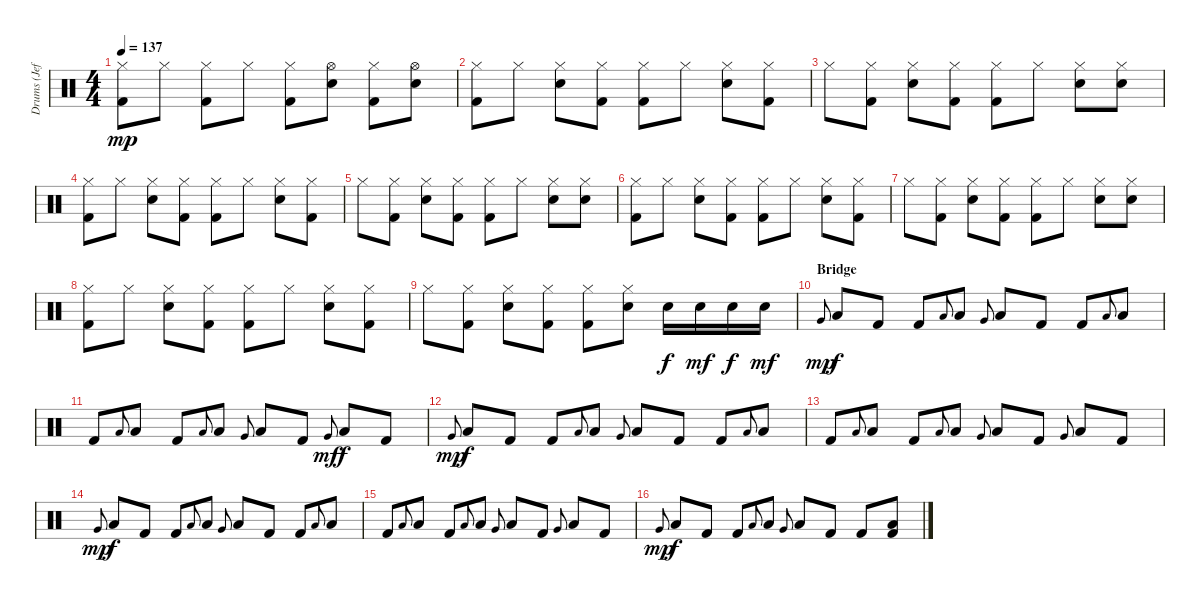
\track ("Drums (Jeff)" "Drums (Jef") {instrument percussion}
\staff {score}
\articulation defaults
\ts (4 4)
\tempo 137
\clef neutral
\ks c
("Hi-Hat (closed)" "Kick (hit) 2").8{dy mp} "Hi-Hat (closed)".8 ("Hi-Hat (closed)" "Kick (hit) 2").8 "Hi-Hat (closed)".8 ("Hi-Hat (closed)" "Kick (hit) 2").8 ("Hi-Hat (open)" "Electric Snare (hit)").8 ("Hi-Hat (closed)" "Kick (hit) 2").8 ("Hi-Hat (open)" "Electric Snare (hit)").8 |
("Hi-Hat (closed)" "Kick (hit) 2").8 "Hi-Hat (closed)".8 ("Hi-Hat (closed)" "Electric Snare (hit)").8 ("Hi-Hat (closed)" "Kick (hit) 2").8 ("Hi-Hat (closed)" "Kick (hit) 2").8 "Hi-Hat (closed)".8 ("Hi-Hat (closed)" "Electric Snare (hit)").8 ("Hi-Hat (closed)" "Kick (hit) 2").8 |
"Hi-Hat (closed)".8 ("Hi-Hat (closed)" "Kick (hit) 2").8 ("Hi-Hat (closed)" "Electric Snare (hit)").8 ("Hi-Hat (closed)" "Kick (hit) 2").8 ("Hi-Hat (closed)" "Kick (hit) 2").8 "Hi-Hat (closed)".8 ("Hi-Hat (closed)" "Electric Snare (hit)").8 ("Hi-Hat (closed)" "Electric Snare (hit)").8 |
("Hi-Hat (closed)" "Kick (hit) 2").8 "Hi-Hat (closed)".8 ("Hi-Hat (closed)" "Electric Snare (hit)").8 ("Hi-Hat (closed)" "Kick (hit) 2").8 ("Hi-Hat (closed)" "Kick (hit) 2").8 "Hi-Hat (closed)".8 ("Hi-Hat (closed)" "Electric Snare (hit)").8 ("Hi-Hat (closed)" "Kick (hit) 2").8 |
"Hi-Hat (closed)".8 ("Hi-Hat (closed)" "Kick (hit) 2").8 ("Hi-Hat (closed)" "Electric Snare (hit)").8 ("Hi-Hat (closed)" "Kick (hit) 2").8 ("Hi-Hat (closed)" "Kick (hit) 2").8 "Hi-Hat (closed)".8 ("Hi-Hat (closed)" "Electric Snare (hit)").8 ("Hi-Hat (closed)" "Electric Snare (hit)").8 |
("Hi-Hat (closed)" "Kick (hit) 2").8 "Hi-Hat (closed)".8 ("Hi-Hat (closed)" "Electric Snare (hit)").8 ("Hi-Hat (closed)" "Kick (hit) 2").8 ("Hi-Hat (closed)" "Kick (hit) 2").8 "Hi-Hat (closed)".8 ("Hi-Hat (closed)" "Electric Snare (hit)").8 ("Hi-Hat (closed)" "Kick (hit) 2").8 |
"Hi-Hat (closed)".8 ("Hi-Hat (closed)" "Kick (hit) 2").8 ("Hi-Hat (closed)" "Electric Snare (hit)").8 ("Hi-Hat (closed)" "Kick (hit) 2").8 ("Hi-Hat (closed)" "Kick (hit) 2").8 "Hi-Hat (closed)".8 ("Hi-Hat (closed)" "Electric Snare (hit)").8 ("Hi-Hat (closed)" "Electric Snare (hit)").8 |
("Hi-Hat (closed)" "Kick (hit) 2").8 "Hi-Hat (closed)".8 ("Hi-Hat (closed)" "Electric Snare (hit)").8 ("Hi-Hat (closed)" "Kick (hit) 2").8 ("Hi-Hat (closed)" "Kick (hit) 2").8 "Hi-Hat (closed)".8 ("Hi-Hat (closed)" "Electric Snare (hit)").8 ("Hi-Hat (closed)" "Kick (hit) 2").8 |
"Hi-Hat (closed)".8 ("Hi-Hat (closed)" "Kick (hit) 2").8 ("Hi-Hat (closed)" "Electric Snare (hit)").8 ("Hi-Hat (closed)" "Kick (hit) 2").8 ("Hi-Hat (closed)" "Kick (hit) 2").8 ("Hi-Hat (closed)" "Electric Snare (hit)").8 "Electric Snare (hit)".16{dy f} "Electric Snare (hit)".16{dy mf} "Electric Snare (hit)".16{dy f} "Electric Snare (hit)".16{dy mf} |
\section ("" "Bridge")
"Very Low Tom (hit)".8{gr onbeat dy mp} "Low Floor Tom (hit)".8{dy f volume 10} "Kick (hit) 2".8 "Kick (hit) 2".8 "Low Tom (hit)".8{gr onbeat} "Low Floor Tom (hit)".8 "Very Low Tom (hit)".8{gr onbeat} "Low Floor Tom (hit)".8 "Kick (hit) 2".8 "Kick (hit) 2".8 "Low Tom (hit)".8{gr onbeat} "Low Floor Tom (hit)".8 |
"Kick (hit) 2".8 "Low Tom (hit)".8{gr onbeat} "Low Floor Tom (hit)".8 "Kick (hit) 2".8 "Low Tom (hit)".8{gr onbeat} "Low Floor Tom (hit)".8 "Very Low Tom (hit)".8{gr onbeat} "Low Floor Tom (hit)".8 "Kick (hit) 2".8 "Very Low Tom (hit)".8{gr onbeat dy mf} "Low Floor Tom (hit)".8{dy f} "Kick (hit) 2".8 |
"Very Low Tom (hit)".8{gr onbeat dy mp} "Low Floor Tom (hit)".8{dy f} "Kick (hit) 2".8 "Kick (hit) 2".8 "Low Tom (hit)".8{gr onbeat} "Low Floor Tom (hit)".8 "Very Low Tom (hit)".8{gr onbeat} "Low Floor Tom (hit)".8 "Kick (hit) 2".8 "Kick (hit) 2".8 "Low Tom (hit)".8{gr onbeat} "Low Floor Tom (hit)".8 |
"Kick (hit) 2".8 "Low Tom (hit)".8{gr onbeat} "Low Floor Tom (hit)".8 "Kick (hit) 2".8 "Low Tom (hit)".8{gr onbeat} "Low Floor Tom (hit)".8 "Very Low Tom (hit)".8{gr onbeat} "Low Floor Tom (hit)".8 "Kick (hit) 2".8 "Very Low Tom (hit)".8{gr onbeat} "Low Floor Tom (hit)".8 "Kick (hit) 2".8 |
"Very Low Tom (hit)".8{gr onbeat dy mp} "Low Floor Tom (hit)".8{dy f} "Kick (hit) 2".8 "Kick (hit) 2".8 "Low Tom (hit)".8{gr onbeat} "Low Floor Tom (hit)".8 "Very Low Tom (hit)".8{gr onbeat} "Low Floor Tom (hit)".8 "Kick (hit) 2".8 "Kick (hit) 2".8 "Low Tom (hit)".8{gr onbeat} "Low Floor Tom (hit)".8 |
"Kick (hit) 2".8 "Low Tom (hit)".8{gr onbeat} "Low Floor Tom (hit)".8 "Kick (hit) 2".8 "Low Tom (hit)".8{gr onbeat} "Low Floor Tom (hit)".8 "Very Low Tom (hit)".8{gr onbeat} "Low Floor Tom (hit)".8 "Kick (hit) 2".8 "Very Low Tom (hit)".8{gr onbeat} "Low Floor Tom (hit)".8 "Kick (hit) 2".8 |
"Very Low Tom (hit)".8{gr onbeat dy mp} "Low Floor Tom (hit)".8{dy f} "Kick (hit) 2".8 "Kick (hit) 2".8 "Low Tom (hit)".8{gr onbeat} "Low Floor Tom (hit)".8 "Very Low Tom (hit)".8{gr onbeat} "Low Floor Tom (hit)".8 "Kick (hit) 2".8 "Kick (hit) 2".8 ("Low Floor Tom (hit)" "Kick (hit) 2").8
